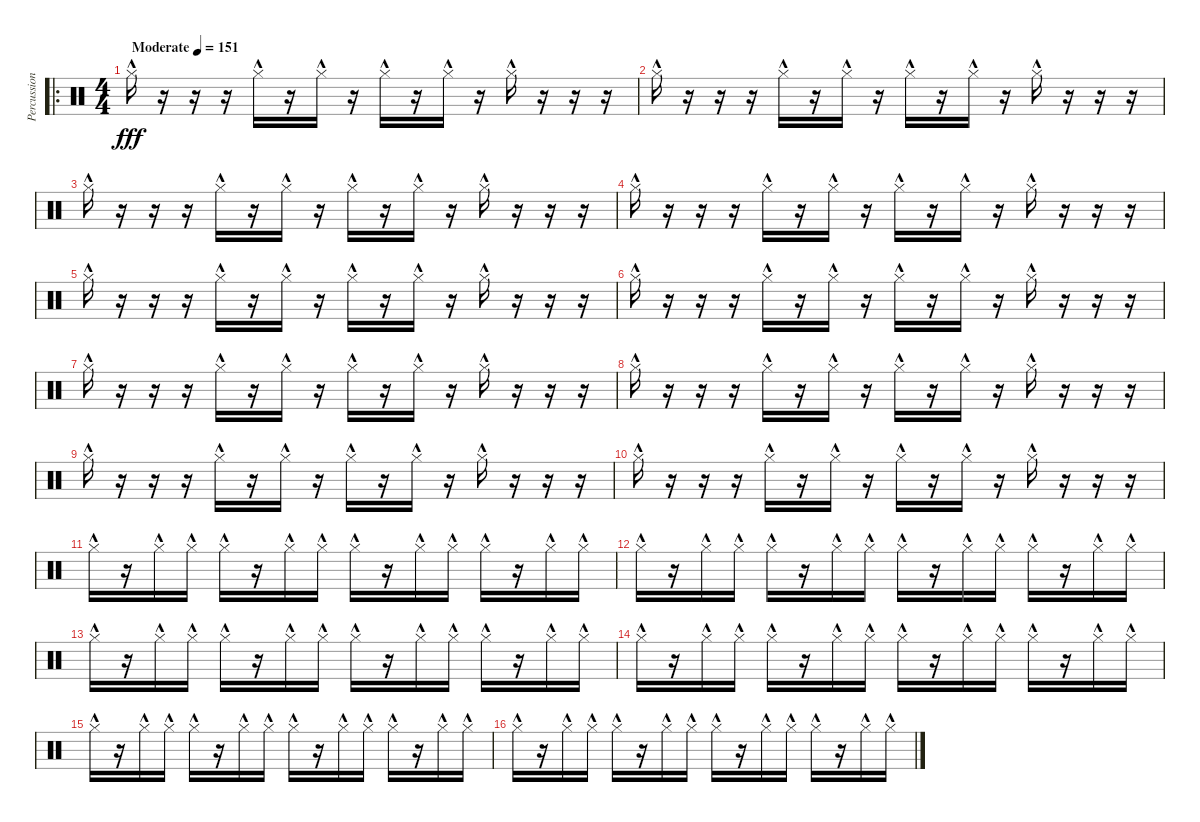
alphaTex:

\track ("Percussion" "Percussion") {instrument percussion}
\staff {score}
\articulation defaults
\ro
\ts (4 4)
\tempo (151 "Moderate")
\clef neutral
\ks c "Hi-Hat (closed)"{hac}.16{dy fff}
r.16 r.16 r.16 "Hi-Hat (closed)"{hac}.16 r.16 "Hi-Hat (closed)"{hac}.16 r.16 "Hi-Hat (closed)"{hac}.16 r.16 "Hi-Hat (closed)"{hac}.16 r.16 "Hi-Hat (closed)"{hac}.16 r.16 r.16 r.16 |
"Hi-Hat (closed)"{hac}.16 r.16 r.16 r.16 "Hi-Hat (closed)"{hac}.16 r.16 "Hi-Hat (closed)"{hac}.16 r.16 "Hi-Hat (closed)"{hac}.16 r.16 "Hi-Hat (closed)"{hac}.16 r.16 "Hi-Hat (closed)"{hac}.16 r.16 r.16 r.16 |
"Hi-Hat (closed)"{hac}.16 r.16 r.16 r.16 "Hi-Hat (closed)"{hac}.16 r.16 "Hi-Hat (closed)"{hac}.16 r.16 "Hi-Hat (closed)"{hac}.16 r.16 "Hi-Hat (closed)"{hac}.16 r.16 "Hi-Hat (closed)"{hac}.16 r.16 r.16 r.16 |
"Hi-Hat (closed)"{hac}.16 r.16 r.16 r.16 "Hi-Hat (closed)"{hac}.16 r.16 "Hi-Hat (closed)"{hac}.16 r.16 "Hi-Hat (closed)"{hac}.16 r.16 "Hi-Hat (closed)"{hac}.16 r.16 "Hi-Hat (closed)"{hac}.16 r.16 r.16 r.16 |
"Hi-Hat (closed)"{hac}.16 r.16 r.16 r.16 "Hi-Hat (closed)"{hac}.16 r.16 "Hi-Hat (closed)"{hac}.16 r.16 "Hi-Hat (closed)"{hac}.16 r.16 "Hi-Hat (closed)"{hac}.16 r.16 "Hi-Hat (closed)"{hac}.16 r.16 r.16 r.16 |
"Hi-Hat (closed)"{hac}.16 r.16 r.16 r.16 "Hi-Hat (closed)"{hac}.16 r.16 "Hi-Hat (closed)"{hac}.16 r.16 "Hi-Hat (closed)"{hac}.16 r.16 "Hi-Hat (closed)"{hac}.16 r.16 "Hi-Hat (closed)"{hac}.16 r.16 r.16 r.16 |
"Hi-Hat (closed)"{hac}.16 r.16 r.16 r.16 "Hi-Hat (closed)"{hac}.16 r.16 "Hi-Hat (closed)"{hac}.16 r.16 "Hi-Hat (closed)"{hac}.16 r.16 "Hi-Hat (closed)"{hac}.16 r.16 "Hi-Hat (closed)"{hac}.16 r.16 r.16 r.16 |
"Hi-Hat (closed)"{hac}.16 r.16 r.16 r.16 "Hi-Hat (closed)"{hac}.16 r.16 "Hi-Hat (closed)"{hac}.16 r.16 "Hi-Hat (closed)"{hac}.16 r.16 "Hi-Hat (closed)"{hac}.16 r.16 "Hi-Hat (closed)"{hac}.16 r.16 r.16 r.16 |
"Hi-Hat (closed)"{hac}.16 r.16 r.16 r.16 "Hi-Hat (closed)"{hac}.16 r.16 "Hi-Hat (closed)"{hac}.16 r.16 "Hi-Hat (closed)"{hac}.16 r.16 "Hi-Hat (closed)"{hac}.16 r.16 "Hi-Hat (closed)"{hac}.16 r.16 r.16 r.16 |
"Hi-Hat (closed)"{hac}.16 r.16 r.16 r.16 "Hi-Hat (closed)"{hac}.16 r.16 "Hi-Hat (closed)"{hac}.16 r.16 "Hi-Hat (closed)"{hac}.16 r.16 "Hi-Hat (closed)"{hac}.16 r.16 "Hi-Hat (closed)"{hac}.16 r.16 r.16 r.16 |
"Hi-Hat (closed)"{hac}.16 r.16 "Hi-Hat (closed)"{hac}.16 "Hi-Hat (closed)"{hac}.16 "Hi-Hat (closed)"{hac}.16 r.16 "Hi-Hat (closed)"{hac}.16 "Hi-Hat (closed)"{hac}.16 "Hi-Hat (closed)"{hac}.16 r.16 "Hi-Hat (closed)"{hac}.16 "Hi-Hat (closed)"{hac}.16 "Hi-Hat (closed)"{hac}.16 r.16 "Hi-Hat (closed)"{hac}.16 "Hi-Hat (closed)"{hac}.16 |
"Hi-Hat (closed)"{hac}.16 r.16 "Hi-Hat (closed)"{hac}.16 "Hi-Hat (closed)"{hac}.16 "Hi-Hat (closed)"{hac}.16 r.16 "Hi-Hat (closed)"{hac}.16 "Hi-Hat (closed)"{hac}.16 "Hi-Hat (closed)"{hac}.16 r.16 "Hi-Hat (closed)"{hac}.16 "Hi-Hat (closed)"{hac}.16 "Hi-Hat (closed)"{hac}.16 r.16 "Hi-Hat (closed)"{hac}.16 "Hi-Hat (closed)"{hac}.16 |
"Hi-Hat (closed)"{hac}.16 r.16 "Hi-Hat (closed)"{hac}.16 "Hi-Hat (closed)"{hac}.16 "Hi-Hat (closed)"{hac}.16 r.16 "Hi-Hat (closed)"{hac}.16 "Hi-Hat (closed)"{hac}.16 "Hi-Hat (closed)"{hac}.16 r.16 "Hi-Hat (closed)"{hac}.16 "Hi-Hat (closed)"{hac}.16 "Hi-Hat (closed)"{hac}.16 r.16 "Hi-Hat (closed)"{hac}.16 "Hi-Hat (closed)"{hac}.16 |
"Hi-Hat (closed)"{hac}.16 r.16 "Hi-Hat (closed)"{hac}.16 "Hi-Hat (closed)"{hac}.16 "Hi-Hat (closed)"{hac}.16 r.16 "Hi-Hat (closed)"{hac}.16 "Hi-Hat (closed)"{hac}.16 "Hi-Hat (closed)"{hac}.16 r.16 "Hi-Hat (closed)"{hac}.16 "Hi-Hat (closed)"{hac}.16 "Hi-Hat (closed)"{hac}.16 r.16 "Hi-Hat (closed)"{hac}.16 "Hi-Hat (closed)"{hac}.16 |
"Hi-Hat (closed)"{hac}.16 r.16 "Hi-Hat (closed)"{hac}.16 "Hi-Hat (closed)"{hac}.16 "Hi-Hat (closed)"{hac}.16 r.16 "Hi-Hat (closed)"{hac}.16 "Hi-Hat (closed)"{hac}.16 "Hi-Hat (closed)"{hac}.16 r.16 "Hi-Hat (closed)"{hac}.16 "Hi-Hat (closed)"{hac}.16 "Hi-Hat (closed)"{hac}.16 r.16 "Hi-Hat (closed)"{hac}.16 "Hi-Hat (closed)"{hac}.16 |
"Hi-Hat (closed)"{hac}.16 r.16 "Hi-Hat (closed)"{hac}.16 "Hi-Hat (closed)"{hac}.16 "Hi-Hat (closed)"{hac}.16 r.16 "Hi-Hat (closed)"{hac}.16 "Hi-Hat (closed)"{hac}.16 "Hi-Hat (closed)"{hac}.16 r.16 "Hi-Hat (closed)"{hac}.16 "Hi-Hat (closed)"{hac}.16 "Hi-Hat (closed)"{hac}.16 r.16 "Hi-Hat (closed)"{hac}.16 "Hi-Hat (closed)"{hac}.16
